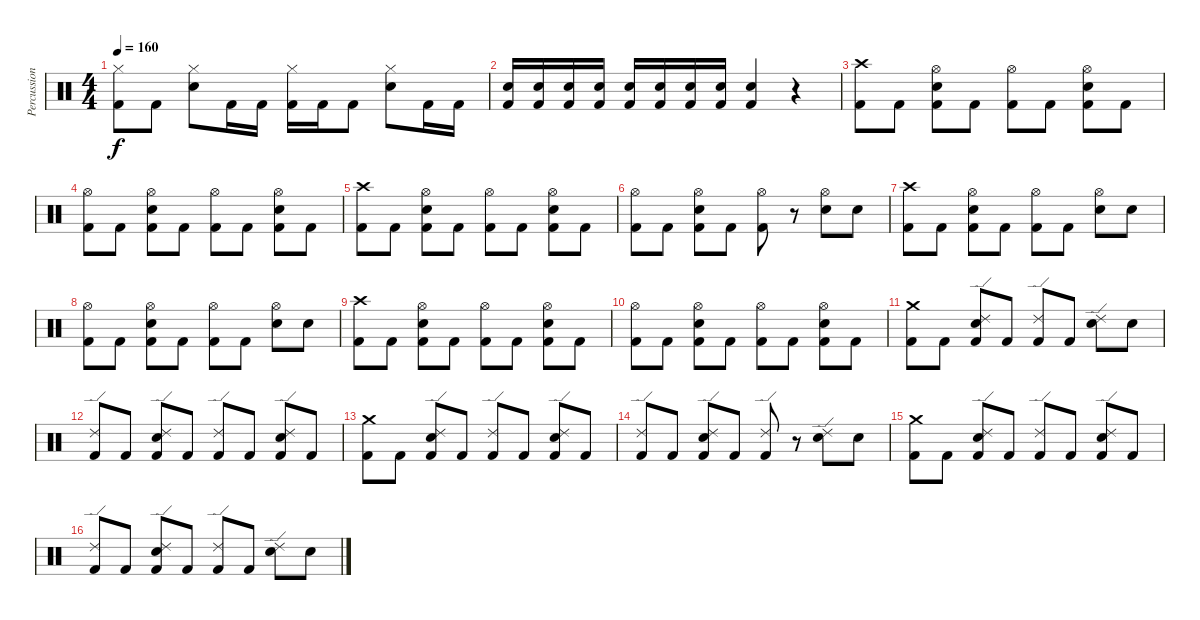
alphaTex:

\track ("Percussion" "Percussion") {instrument percussion}
\staff {score}
\articulation defaults
\ts (4 4)
\tempo 160
\clef neutral
\ks c
("Hi-Hat (closed)" "Kick (hit) 2").8{dy f} "Kick (hit) 2".8 ("Hi-Hat (closed)" "Electric Snare (hit)").8 "Kick (hit) 2".16 "Kick (hit) 2".16 ("Hi-Hat (closed)" "Kick (hit) 2").16 "Kick (hit) 2".16 "Kick (hit) 2".8 ("Hi-Hat (closed)" "Electric Snare (hit)").8 "Kick (hit) 2".16 "Kick (hit) 2".16 |
("Electric Snare (hit)" "Kick (hit) 2").16 ("Electric Snare (hit)" "Kick (hit) 2").16 ("Electric Snare (hit)" "Kick (hit) 2").16 ("Electric Snare (hit)" "Kick (hit) 2").16 ("Electric Snare (hit)" "Kick (hit) 2").16 ("Electric Snare (hit)" "Kick (hit) 2").16 ("Electric Snare (hit)" "Kick (hit) 2").16 ("Electric Snare (hit)" "Kick (hit) 2").16 ("Electric Snare (hit)" "Kick (hit) 2").4 r.4 |
("Crash high (hit)" "Kick (hit) 2").8 "Kick (hit) 2".8 ("Hi-Hat (open)" "Electric Snare (hit)" "Kick (hit) 2").8 "Kick (hit) 2".8 ("Hi-Hat (open)" "Kick (hit) 2").8 "Kick (hit) 2".8 ("Hi-Hat (open)" "Electric Snare (hit)" "Kick (hit) 2").8 "Kick (hit) 2".8 |
("Hi-Hat (open)" "Kick (hit) 2").8 "Kick (hit) 2".8 ("Hi-Hat (open)" "Electric Snare (hit)" "Kick (hit) 2").8 "Kick (hit) 2".8 ("Hi-Hat (open)" "Kick (hit) 2").8 "Kick (hit) 2".8 ("Hi-Hat (open)" "Electric Snare (hit)" "Kick (hit) 2").8 "Kick (hit) 2".8 |
("Crash high (hit)" "Kick (hit) 2").8 "Kick (hit) 2".8 ("Hi-Hat (open)" "Electric Snare (hit)" "Kick (hit) 2").8 "Kick (hit) 2".8 ("Hi-Hat (open)" "Kick (hit) 2").8 "Kick (hit) 2".8 ("Hi-Hat (open)" "Electric Snare (hit)" "Kick (hit) 2").8 "Kick (hit) 2".8 |
("Hi-Hat (open)" "Kick (hit) 2").8 "Kick (hit) 2".8 ("Hi-Hat (open)" "Electric Snare (hit)" "Kick (hit) 2").8 "Kick (hit) 2".8 ("Hi-Hat (open)" "Kick (hit) 2").8 r.8 ("Hi-Hat (open)" "Electric Snare (hit)").8 "Electric Snare (hit)".8 |
("Crash high (hit)" "Kick (hit) 2").8 "Kick (hit) 2".8 ("Hi-Hat (open)" "Electric Snare (hit)" "Kick (hit) 2").8 "Kick (hit) 2".8 ("Hi-Hat (open)" "Kick (hit) 2").8 "Kick (hit) 2".8 ("Hi-Hat (open)" "Electric Snare (hit)").8 "Electric Snare (hit)".8 |
("Hi-Hat (open)" "Kick (hit) 2").8 "Kick (hit) 2".8 ("Hi-Hat (open)" "Electric Snare (hit)" "Kick (hit) 2").8 "Kick (hit) 2".8 ("Hi-Hat (open)" "Kick (hit) 2").8 "Kick (hit) 2".8 ("Hi-Hat (open)" "Electric Snare (hit)").8 "Electric Snare (hit)".8 |
("Crash high (hit)" "Kick (hit) 2").8 "Kick (hit) 2".8 ("Hi-Hat (open)" "Electric Snare (hit)" "Kick (hit) 2").8 "Kick (hit) 2".8 ("Hi-Hat (open)" "Kick (hit) 2").8 "Kick (hit) 2".8 ("Hi-Hat (open)" "Electric Snare (hit)" "Kick (hit) 2").8 "Kick (hit) 2".8 |
("Hi-Hat (open)" "Kick (hit) 2").8 "Kick (hit) 2".8 ("Hi-Hat (open)" "Electric Snare (hit)" "Kick (hit) 2").8 "Kick (hit) 2".8 ("Hi-Hat (open)" "Kick (hit) 2").8 "Kick (hit) 2".8 ("Hi-Hat (open)" "Electric Snare (hit)" "Kick (hit) 2").8 "Kick (hit) 2".8 |
("Crash medium (hit)" "Kick (hit) 2").8 "Kick (hit) 2".8 ("Ride (edge) 2" "Electric Snare (hit)" "Kick (hit) 2").8 "Kick (hit) 2".8 ("Ride (edge) 2" "Kick (hit) 2").8 "Kick (hit) 2".8 ("Ride (edge) 2" "Electric Snare (hit)").8 "Electric Snare (hit)".8 |
("Ride (edge) 2" "Kick (hit) 2").8 "Kick (hit) 2".8 ("Ride (edge) 2" "Electric Snare (hit)" "Kick (hit) 2").8 "Kick (hit) 2".8 ("Ride (edge) 2" "Kick (hit) 2").8 "Kick (hit) 2".8 ("Ride (edge) 2" "Electric Snare (hit)" "Kick (hit) 2").8 "Kick (hit) 2".8 |
("Crash medium (hit)" "Kick (hit) 2").8 "Kick (hit) 2".8 ("Ride (edge) 2" "Electric Snare (hit)" "Kick (hit) 2").8 "Kick (hit) 2".8 ("Ride (edge) 2" "Kick (hit) 2").8 "Kick (hit) 2".8 ("Ride (edge) 2" "Electric Snare (hit)" "Kick (hit) 2").8 "Kick (hit) 2".8 |
("Ride (edge) 2" "Kick (hit) 2").8 "Kick (hit) 2".8 ("Ride (edge) 2" "Electric Snare (hit)" "Kick (hit) 2").8 "Kick (hit) 2".8 ("Ride (edge) 2" "Kick (hit) 2").8 r.8 ("Ride (edge) 2" "Electric Snare (hit)").8 "Electric Snare (hit)".8 |
("Crash medium (hit)" "Kick (hit) 2").8 "Kick (hit) 2".8 ("Ride (edge) 2" "Electric Snare (hit)" "Kick (hit) 2").8 "Kick (hit) 2".8 ("Ride (edge) 2" "Kick (hit) 2").8 "Kick (hit) 2".8 ("Ride (edge) 2" "Electric Snare (hit)" "Kick (hit) 2").8 "Kick (hit) 2".8 |
("Ride (edge) 2" "Kick (hit) 2").8 "Kick (hit) 2".8 ("Ride (edge) 2" "Electric Snare (hit)" "Kick (hit) 2").8 "Kick (hit) 2".8 ("Ride (edge) 2" "Kick (hit) 2").8 "Kick (hit) 2".8 ("Ride (edge) 2" "Electric Snare (hit)").8 "Electric Snare (hit)".8
